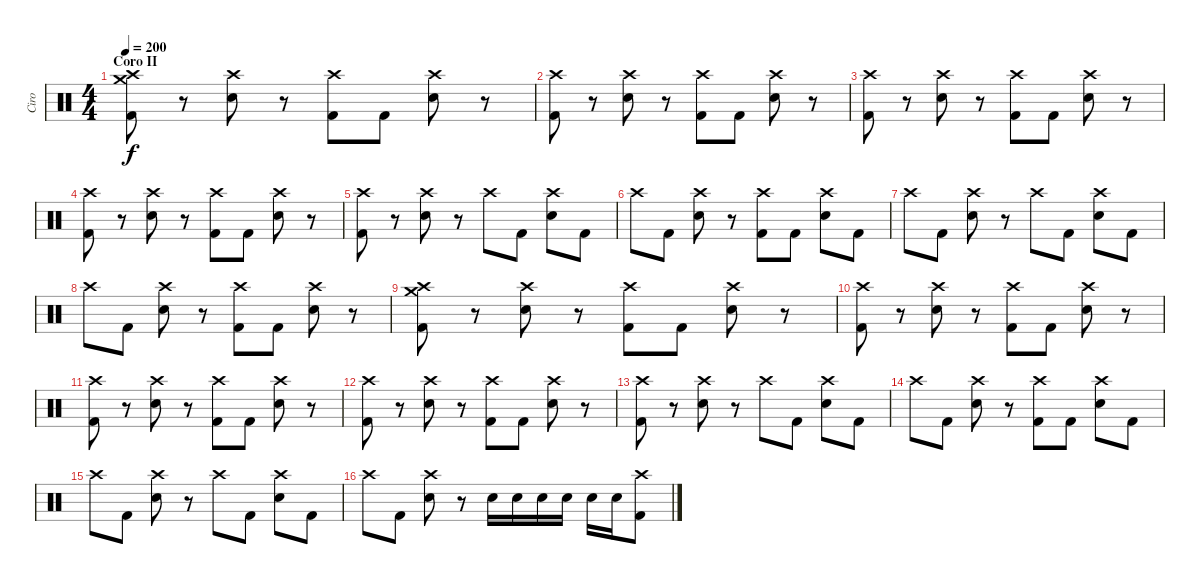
\track ("Ciro" "Ciro") {instrument percussion}
\staff {score}
\articulation defaults
\ts (4 4)
\section ("" "Coro II")
\tempo 200
\clef neutral
\ks c
("Crash high (hit)" "Crash medium (hit)" "Kick (hit) 2").8{dy f} r.8 ("Crash high (hit)" "Snare (hit) 2").8 r.8 ("Crash high (hit)" "Kick (hit) 2").8 "Kick (hit) 2".8 ("Crash high (hit)" "Snare (hit) 2").8 r.8 |
("Crash high (hit)" "Kick (hit) 2").8 r.8 ("Crash high (hit)" "Snare (hit) 2").8 r.8 ("Crash high (hit)" "Kick (hit) 2").8 "Kick (hit) 2".8 ("Crash high (hit)" "Snare (hit) 2").8 r.8 |
("Crash high (hit)" "Kick (hit) 2").8 r.8 ("Crash high (hit)" "Snare (hit) 2").8 r.8 ("Crash high (hit)" "Kick (hit) 2").8 "Kick (hit) 2".8 ("Crash high (hit)" "Snare (hit) 2").8 r.8 |
("Crash high (hit)" "Kick (hit) 2").8 r.8 ("Crash high (hit)" "Snare (hit) 2").8 r.8 ("Crash high (hit)" "Kick (hit) 2").8 "Kick (hit) 2".8 ("Crash high (hit)" "Snare (hit) 2").8 r.8 |
("Crash high (hit)" "Kick (hit) 2").8 r.8 ("Crash high (hit)" "Snare (hit) 2").8 r.8 "Crash high (hit)".8 "Kick (hit) 2".8 ("Crash high (hit)" "Snare (hit) 2").8 "Kick (hit) 2".8 |
"Crash high (hit)".8 "Kick (hit) 2".8 ("Crash high (hit)" "Snare (hit) 2").8 r.8 ("Crash high (hit)" "Kick (hit) 2").8 "Kick (hit) 2".8 ("Crash high (hit)" "Snare (hit) 2").8 "Kick (hit) 2".8 |
"Crash high (hit)".8 "Kick (hit) 2".8 ("Crash high (hit)" "Snare (hit) 2").8 r.8 "Crash high (hit)".8 "Kick (hit) 2".8 ("Crash high (hit)" "Snare (hit) 2").8 "Kick (hit) 2".8 |
"Crash high (hit)".8 "Kick (hit) 2".8 ("Crash high (hit)" "Snare (hit) 2").8 r.8 ("Crash high (hit)" "Kick (hit) 2").8 "Kick (hit) 2".8 ("Crash high (hit)" "Snare (hit) 2").8 r.8 |
("Crash high (hit)" "Crash medium (hit)" "Kick (hit) 2").8 r.8 ("Crash high (hit)" "Snare (hit) 2").8 r.8 ("Crash high (hit)" "Kick (hit) 2").8 "Kick (hit) 2".8 ("Crash high (hit)" "Snare (hit) 2").8 r.8 |
("Crash high (hit)" "Kick (hit) 2").8 r.8 ("Crash high (hit)" "Snare (hit) 2").8 r.8 ("Crash high (hit)" "Kick (hit) 2").8 "Kick (hit) 2".8 ("Crash high (hit)" "Snare (hit) 2").8 r.8 |
("Crash high (hit)" "Kick (hit) 2").8 r.8 ("Crash high (hit)" "Snare (hit) 2").8 r.8 ("Crash high (hit)" "Kick (hit) 2").8 "Kick (hit) 2".8 ("Crash high (hit)" "Snare (hit) 2").8 r.8 |
("Crash high (hit)" "Kick (hit) 2").8 r.8 ("Crash high (hit)" "Snare (hit) 2").8 r.8 ("Crash high (hit)" "Kick (hit) 2").8 "Kick (hit) 2".8 ("Crash high (hit)" "Snare (hit) 2").8 r.8 |
("Crash high (hit)" "Kick (hit) 2").8 r.8 ("Crash high (hit)" "Snare (hit) 2").8 r.8 "Crash high (hit)".8 "Kick (hit) 2".8 ("Crash high (hit)" "Snare (hit) 2").8 "Kick (hit) 2".8 |
"Crash high (hit)".8 "Kick (hit) 2".8 ("Crash high (hit)" "Snare (hit) 2").8 r.8 ("Crash high (hit)" "Kick (hit) 2").8 "Kick (hit) 2".8 ("Crash high (hit)" "Snare (hit) 2").8 "Kick (hit) 2".8 |
"Crash high (hit)".8 "Kick (hit) 2".8 ("Crash high (hit)" "Snare (hit) 2").8 r.8 "Crash high (hit)".8 "Kick (hit) 2".8 ("Crash high (hit)" "Snare (hit) 2").8 "Kick (hit) 2".8 |
"Crash high (hit)".8 "Kick (hit) 2".8 ("Crash high (hit)" "Snare (hit) 2").8 r.8 "Snare (hit) 2".16 "Snare (hit) 2".16 "Snare (hit) 2".16 "Snare (hit) 2".16 "Snare (hit) 2".16 "Snare (hit) 2".16 ("Crash high (hit)" "Kick (hit) 2").8
